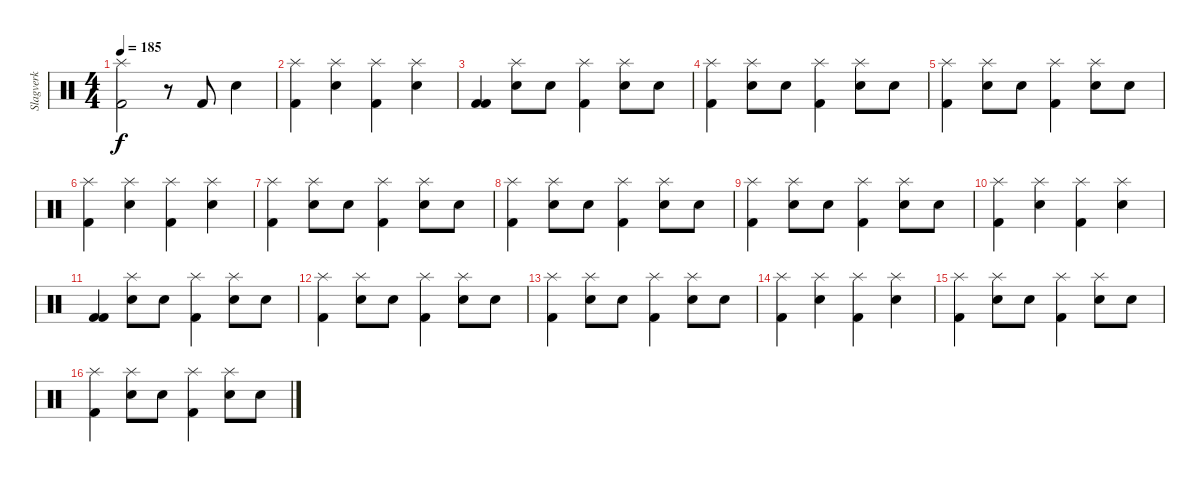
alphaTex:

\track ("Slagverk" "Slagverk") {instrument percussion}
\staff {score}
\articulation defaults
\ts (4 4)
\tempo 185
\clef neutral
\ks c
("Splash (hit)" "Kick (hit) 2").2{dy f} r.8 "Kick (hit) 2".8 "Electric Snare (hit)".4 |
("Splash (hit)" "Kick (hit) 2").4 ("Splash (hit)" "Electric Snare (hit)").4 ("Splash (hit)" "Kick (hit) 2").4 ("Splash (hit)" "Electric Snare (hit)").4 |
("Kick (hit) 2" "Kick (hit) 2").4 ("Splash (hit)" "Electric Snare (hit)").8 "Electric Snare (hit)".8 ("Splash (hit)" "Kick (hit) 2").4 ("Splash (hit)" "Electric Snare (hit)").8 "Electric Snare (hit)".8 |
("Splash (hit)" "Kick (hit) 2").4 ("Splash (hit)" "Electric Snare (hit)").8 "Electric Snare (hit)".8 ("Splash (hit)" "Kick (hit) 2").4 ("Splash (hit)" "Electric Snare (hit)").8 "Electric Snare (hit)".8 |
("Splash (hit)" "Kick (hit) 2").4 ("Splash (hit)" "Electric Snare (hit)").8 "Electric Snare (hit)".8 ("Splash (hit)" "Kick (hit) 2").4 ("Splash (hit)" "Electric Snare (hit)").8 "Electric Snare (hit)".8 |
("Splash (hit)" "Kick (hit) 2").4 ("Splash (hit)" "Electric Snare (hit)").4 ("Splash (hit)" "Kick (hit) 2").4 ("Splash (hit)" "Electric Snare (hit)").4 |
("Splash (hit)" "Kick (hit) 2").4 ("Splash (hit)" "Electric Snare (hit)").8 "Electric Snare (hit)".8 ("Splash (hit)" "Kick (hit) 2").4 ("Splash (hit)" "Electric Snare (hit)").8 "Electric Snare (hit)".8 |
("Splash (hit)" "Kick (hit) 2").4 ("Splash (hit)" "Electric Snare (hit)").8 "Electric Snare (hit)".8 ("Splash (hit)" "Kick (hit) 2").4 ("Splash (hit)" "Electric Snare (hit)").8 "Electric Snare (hit)".8 |
("Splash (hit)" "Kick (hit) 2").4 ("Splash (hit)" "Electric Snare (hit)").8 "Electric Snare (hit)".8 ("Splash (hit)" "Kick (hit) 2").4 ("Splash (hit)" "Electric Snare (hit)").8 "Electric Snare (hit)".8 |
("Splash (hit)" "Kick (hit) 2").4 ("Splash (hit)" "Electric Snare (hit)").4 ("Splash (hit)" "Kick (hit) 2").4 ("Splash (hit)" "Electric Snare (hit)").4 |
("Kick (hit) 2" "Kick (hit) 2").4 ("Splash (hit)" "Electric Snare (hit)").8 "Electric Snare (hit)".8 ("Splash (hit)" "Kick (hit) 2").4 ("Splash (hit)" "Electric Snare (hit)").8 "Electric Snare (hit)".8 |
("Splash (hit)" "Kick (hit) 2").4 ("Splash (hit)" "Electric Snare (hit)").8 "Electric Snare (hit)".8 ("Splash (hit)" "Kick (hit) 2").4 ("Splash (hit)" "Electric Snare (hit)").8 "Electric Snare (hit)".8 |
("Splash (hit)" "Kick (hit) 2").4 ("Splash (hit)" "Electric Snare (hit)").8 "Electric Snare (hit)".8 ("Splash (hit)" "Kick (hit) 2").4 ("Splash (hit)" "Electric Snare (hit)").8 "Electric Snare (hit)".8 |
("Splash (hit)" "Kick (hit) 2").4 ("Splash (hit)" "Electric Snare (hit)").4 ("Splash (hit)" "Kick (hit) 2").4 ("Splash (hit)" "Electric Snare (hit)").4 |
("Splash (hit)" "Kick (hit) 2").4 ("Splash (hit)" "Electric Snare (hit)").8 "Electric Snare (hit)".8 ("Splash (hit)" "Kick (hit) 2").4 ("Splash (hit)" "Electric Snare (hit)").8 "Electric Snare (hit)".8 |
("Splash (hit)" "Kick (hit) 2").4 ("Splash (hit)" "Electric Snare (hit)").8 "Electric Snare (hit)".8 ("Splash (hit)" "Kick (hit) 2").4 ("Splash (hit)" "Electric Snare (hit)").8 "Electric Snare (hit)".8
